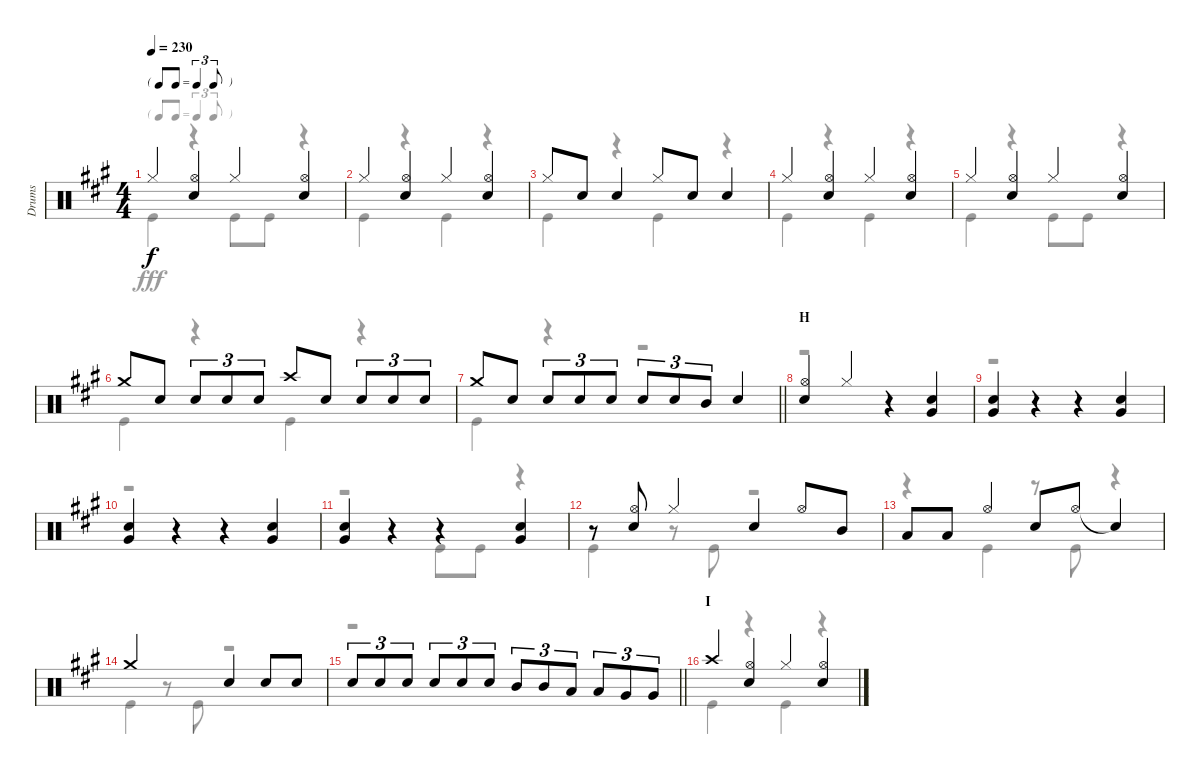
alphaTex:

\track ("Drums" "Drums") {instrument percussion}
\staff {score}
\articulation defaults
\voice
\ts (4 4)
\tf triplet8th
\tempo 230
\clef neutral
\ks a "Hi-Hat (closed)".4{dy f}
("Hi-Hat (open)" "Snare (hit) 2").4 "Hi-Hat (closed)".4 ("Hi-Hat (open)" "Snare (hit) 2").4 |
"Hi-Hat (closed)".4 ("Hi-Hat (open)" "Snare (hit) 2").4 "Hi-Hat (closed)".4 ("Hi-Hat (open)" "Snare (hit) 2").4 |
"Hi-Hat (closed)".8 "Snare (hit) 2".8 "Snare (hit) 2".4 "Hi-Hat (closed)".8 "Snare (hit) 2".8 "Snare (hit) 2".4 |
"Hi-Hat (closed)".4 ("Hi-Hat (open)" "Snare (hit) 2").4 "Hi-Hat (closed)".4 ("Hi-Hat (open)" "Snare (hit) 2").4 |
"Hi-Hat (closed)".4 ("Hi-Hat (open)" "Snare (hit) 2").4 "Hi-Hat (closed)".4 ("Hi-Hat (open)" "Snare (hit) 2").4 |
"Crash medium (hit)".8 "Snare (hit) 2".8 "Snare (hit) 2".8{tu (3 2)} "Snare (hit) 2".8{tu (3 2)} "Snare (hit) 2".8{tu (3 2)} "Crash high (hit)".8 "Snare (hit) 2".8 "Snare (hit) 2".8{tu (3 2)} "Snare (hit) 2".8{tu (3 2)} "Snare (hit) 2".8{tu (3 2)} |
\barLineRight lightlight "Crash medium (hit)".8 "Snare (hit) 2".8 "Snare (hit) 2".8{tu (3 2)} "Snare (hit) 2".8{tu (3 2)} "Snare (hit) 2".8{tu (3 2)} "Snare (hit) 2".8{tu (3 2)} "Snare (hit) 2".8{tu (3 2)} "Mid Tom (hit)".8{tu (3 2)} "Snare (hit) 2".4
|
\section ("" "H")
("Hi-Hat (open)" "Snare (hit) 2").4 "Hi-Hat (closed)".4 r.4 ("Snare (hit) 2" "Very Low Tom (hit)").4 |
("Snare (hit) 2" "Very Low Tom (hit)").4 r.4 r.4 ("Snare (hit) 2" "Very Low Tom (hit)").4 |
("Snare (hit) 2" "Very Low Tom (hit)").4 r.4 r.4 ("Snare (hit) 2" "Very Low Tom (hit)").4 |
("Snare (hit) 2" "Very Low Tom (hit)").4 r.4 r.4 ("Snare (hit) 2" "Very Low Tom (hit)").4 |
r.8 ("Hi-Hat (open)" "Snare (hit) 2").8 "Hi-Hat (closed)".4 "Snare (hit) 2".4 "Hi-Hat (open)".8 "Mid Tom (hit)".8 |
"Low Tom (hit)".8 "Low Tom (hit)".8 "Hi-Hat (open)".4 "Snare (hit) 2".8 "Hi-Hat (open)".8 "Snare (hit)"{t}.4 |
"Crash medium (hit)".2 "Snare (hit) 2".4 "Snare (hit) 2".8 "Snare (hit) 2".8 |
\barLineRight lightlight "Snare (hit) 2".8{tu (3 2)} "Snare (hit) 2".8{tu (3 2)} "Snare (hit) 2".8{tu (3 2)} "Snare (hit) 2".8{tu (3 2)} "Snare (hit) 2".8{tu (3 2)} "Snare (hit) 2".8{tu (3 2)} "Mid Tom (hit)".8{tu (3 2)} "Mid Tom (hit)".8{tu (3 2)} "Low Tom (hit)".8{tu (3 2)} "Low Tom (hit)".8{tu (3 2)} "Very Low Tom (hit)".8{tu (3 2)} "Very Low Tom (hit)".8{tu (3 2)}
|
\section ("" "I")
"Crash high (hit)".4 ("Hi-Hat (open)" "Snare (hit) 2").4 "Hi-Hat (closed)".4 ("Hi-Hat (open)" "Snare (hit) 2").4
\voice
\clef neutral
\ottava regular
\simile none
\ks a "Kick (hit)".4{dy fff}
r.4 "Kick (hit)".8 "Kick (hit)".8 r.4 |
"Kick (hit)".4 r.4 "Kick (hit)".4 r.4 |
"Kick (hit)".4 r.4 "Kick (hit)".4 r.4 |
"Kick (hit)".4 r.4 "Kick (hit)".4 r.4 |
"Kick (hit)".4 r.4 "Kick (hit)".8 "Kick (hit)".8 r.4 |
"Kick (hit)".4 r.4 "Kick (hit)".4 r.4 |
\barLineRight lightlight "Kick (hit)".4
r.4 r.2 |
r.1 |
r.1 |
r.1 |
r.2 "Kick (hit)".8 "Kick (hit)".8 r.4 |
"Kick (hit)".4 r.8 "Kick (hit)".8 r.2 |
r.4 "Kick (hit)".4 r.8 "Kick (hit)".8 r.4 |
"Kick (hit)".4 r.8 "Kick (hit)".8 r.2 |
\barLineRight lightlight
r.1 |
"Kick (hit)".4 r.4 "Kick (hit)".4 r.4
